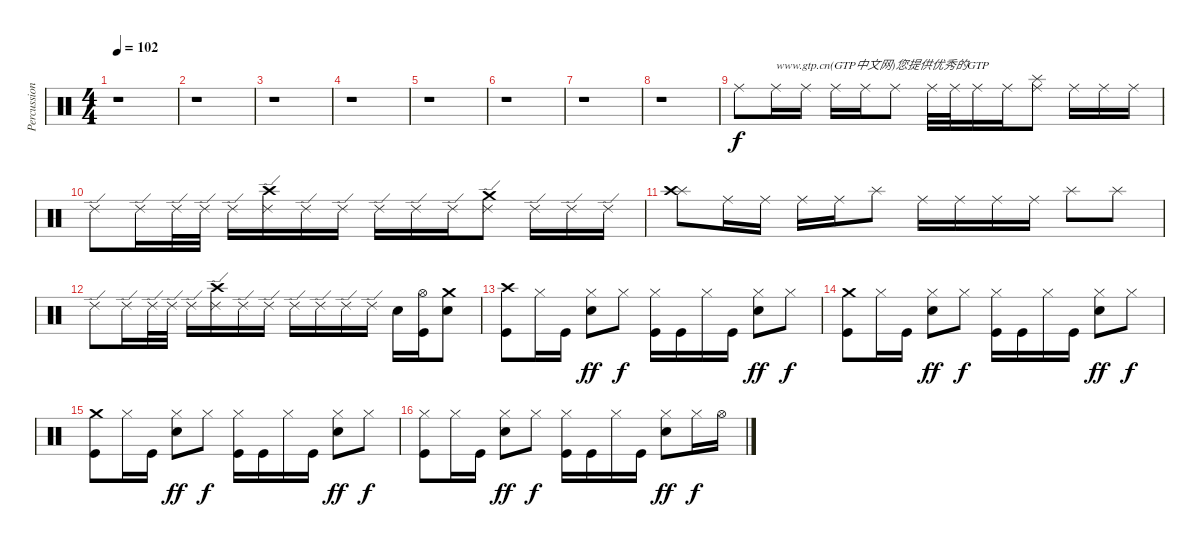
\track ("Percussion" "Percussion") {instrument percussion}
\staff {score}
\articulation defaults
\ts (4 4)
\tempo 102
\clef neutral
\ks c
r.1{dy f} |
r.1 |
r.1 |
r.1 |
r.1 |
r.1 |
r.1 |
r.1 |
"Ride (middle)".8 "Ride (middle)".16{txt "www.gtp.cn(GTP中文网)您提供优秀的GTP"} "Ride (middle)".16 "Ride (middle)".16 "Ride (middle)".16 "Ride (middle)".8 "Ride (middle)".32 "Ride (middle)".32 "Ride (middle)".16 "Ride (middle)".16 ("Ride (middle)" "Splash (hit)").8 "Ride (middle)".16 "Ride (middle)".16 "Ride (middle)".16 |
"Ride (edge) 2".8 "Ride (edge) 2".16 "Ride (edge) 2".32 "Ride (edge) 2".32 "Ride (edge) 2".16 ("Ride (edge) 2" "Crash high (hit)").16 "Ride (edge) 2".16 "Ride (edge) 2".16 "Ride (edge) 2".16 "Ride (edge) 2".16 "Ride (edge) 2".16 ("Ride (edge) 2" "Crash medium (hit)").8 "Ride (edge) 2".16 "Ride (edge) 2".16 "Ride (edge) 2".16 |
("Splash (hit)" "Crash high (hit)").8 "Ride (middle)".16 "Ride (middle)".16 "Ride (middle)".16 "Ride (middle)".16 "Splash (hit)".8 "Ride (middle)".16 "Ride (middle)".16 "Ride (middle)".16 "Ride (middle)".16 "Splash (hit)".8 "Splash (hit)".8 |
"Ride (edge) 2".8 "Ride (edge) 2".16 "Ride (edge) 2".32 "Ride (edge) 2".32 "Ride (edge) 2".16 ("Ride (edge) 2" "Crash high (hit)").16 "Ride (edge) 2".16 "Ride (edge) 2".16 "Ride (edge) 2".16 "Ride (edge) 2".16 "Ride (edge) 2".16 "Ride (edge) 2".16 "Electric Snare (hit)".16 ("Hi-Hat (open)" "Kick (hit)").16 ("Snare (hit) 2" "Crash medium (hit)").8 |
("Crash high (hit)" "Kick (hit)").8 "Hi-Hat (closed)".16 "Kick (hit)".16 ("Hi-Hat (closed)" "Snare (hit) 2").8{dy ff} "Hi-Hat (closed)".8{dy f} ("Hi-Hat (closed)" "Kick (hit)").16 "Kick (hit)".16 "Hi-Hat (closed)".16 "Kick (hit)".16 ("Hi-Hat (closed)" "Snare (hit) 2").8{dy ff} "Hi-Hat (closed)".8{dy f} |
("Crash medium (hit)" "Kick (hit)").8 "Hi-Hat (closed)".16 "Kick (hit)".16 ("Hi-Hat (closed)" "Snare (hit) 2").8{dy ff} "Hi-Hat (closed)".8{dy f} ("Hi-Hat (closed)" "Kick (hit)").16 "Kick (hit)".16 "Hi-Hat (closed)".16 "Kick (hit)".16 ("Hi-Hat (closed)" "Snare (hit) 2").8{dy ff} "Hi-Hat (closed)".8{dy f} |
("Crash medium (hit)" "Kick (hit)").8 "Hi-Hat (closed)".16 "Kick (hit)".16 ("Hi-Hat (closed)" "Snare (hit) 2").8{dy ff} "Hi-Hat (closed)".8{dy f} ("Hi-Hat (closed)" "Kick (hit)").16 "Kick (hit)".16 "Hi-Hat (closed)".16 "Kick (hit)".16 ("Hi-Hat (closed)" "Snare (hit) 2").8{dy ff} "Hi-Hat (closed)".8{dy f} |
("Hi-Hat (closed)" "Kick (hit)").8 "Hi-Hat (closed)".16 "Kick (hit)".16 ("Hi-Hat (closed)" "Snare (hit) 2").8{dy ff} "Hi-Hat (closed)".8{dy f} ("Hi-Hat (closed)" "Kick (hit)").16 "Kick (hit)".16 "Hi-Hat (closed)".16 "Kick (hit)".16 ("Hi-Hat (closed)" "Snare (hit) 2").8{dy ff} "Hi-Hat (closed)".16{dy f} "Hi-Hat (open)".16
